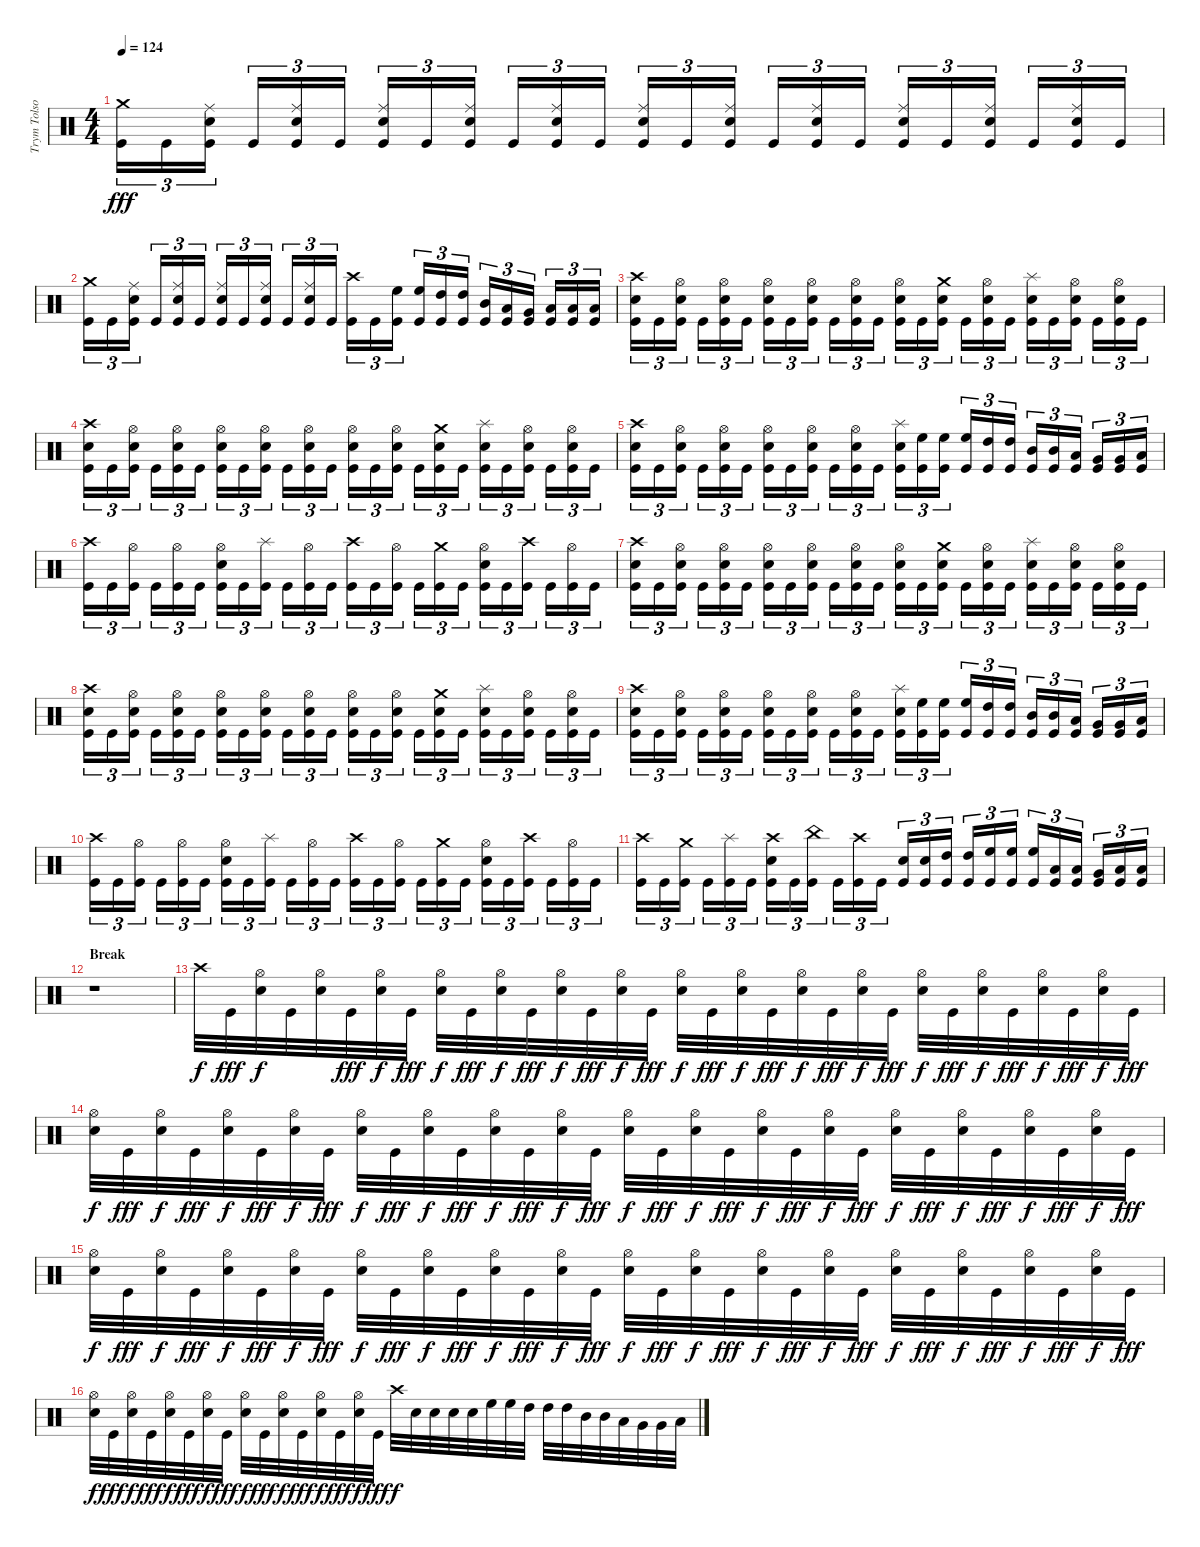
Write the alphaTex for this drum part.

\track ("Trym Tolson" "Trym Tolso") {instrument percussion}
\staff {score}
\articulation defaults
\ts (4 4)
\tempo 124
\clef neutral
\ks c
("Crash medium (hit)" "Kick (hit)").16{tu (3 2) dy fff} "Kick (hit)".16{tu (3 2)} ("Ride (middle)" "Electric Snare (hit)" "Kick (hit)").16{tu (3 2)} "Kick (hit)".16{tu (3 2)} ("Ride (middle)" "Electric Snare (hit)" "Kick (hit)").16{tu (3 2)} "Kick (hit)".16{tu (3 2)} ("Ride (middle)" "Electric Snare (hit)" "Kick (hit)").16{tu (3 2)} "Kick (hit)".16{tu (3 2)} ("Ride (middle)" "Electric Snare (hit)" "Kick (hit)").16{tu (3 2)} "Kick (hit)".16{tu (3 2)} ("Ride (middle)" "Electric Snare (hit)" "Kick (hit)").16{tu (3 2)} "Kick (hit)".16{tu (3 2)} ("Ride (middle)" "Electric Snare (hit)" "Kick (hit)").16{tu (3 2)} "Kick (hit)".16{tu (3 2)} ("Ride (middle)" "Electric Snare (hit)" "Kick (hit)").16{tu (3 2)} "Kick (hit)".16{tu (3 2)} ("Ride (middle)" "Electric Snare (hit)" "Kick (hit)").16{tu (3 2)} "Kick (hit)".16{tu (3 2)} ("Ride (middle)" "Electric Snare (hit)" "Kick (hit)").16{tu (3 2)} "Kick (hit)".16{tu (3 2)} ("Ride (middle)" "Electric Snare (hit)" "Kick (hit)").16{tu (3 2)} "Kick (hit)".16{tu (3 2)} ("Ride (middle)" "Electric Snare (hit)" "Kick (hit)").16{tu (3 2)} "Kick (hit)".16{tu (3 2)} |
("Crash medium (hit)" "Kick (hit)").16{tu (3 2)} "Kick (hit)".16{tu (3 2)} ("Ride (middle)" "Electric Snare (hit)" "Kick (hit)").16{tu (3 2)} "Kick (hit)".16{tu (3 2)} ("Ride (middle)" "Electric Snare (hit)" "Kick (hit)").16{tu (3 2)} "Kick (hit)".16{tu (3 2)} ("Ride (middle)" "Electric Snare (hit)" "Kick (hit)").16{tu (3 2)} "Kick (hit)".16{tu (3 2)} ("Ride (middle)" "Electric Snare (hit)" "Kick (hit)").16{tu (3 2)} "Kick (hit)".16{tu (3 2)} ("Ride (middle)" "Electric Snare (hit)" "Kick (hit)").16{tu (3 2)} "Kick (hit)".16{tu (3 2)} ("Crash high (hit)" "Kick (hit)").16{tu (3 2)} "Kick (hit)".16{tu (3 2)} ("High Floor Tom (hit)" "Kick (hit)").16{tu (3 2)} ("High Floor Tom (hit)" "Kick (hit)").16{tu (3 2)} ("High Tom (hit)" "Kick (hit)").16{tu (3 2)} ("High Tom (hit)" "Kick (hit)").16{tu (3 2)} ("Mid Tom (hit)" "Kick (hit)").16{tu (3 2)} ("Low Tom (hit)" "Kick (hit)").16{tu (3 2)} ("Very Low Tom (hit)" "Kick (hit)").16{tu (3 2)} ("Low Floor Tom (hit)" "Kick (hit)").16{tu (3 2)} ("Low Floor Tom (hit)" "Kick (hit)").16{tu (3 2)} ("Low Floor Tom (hit)" "Kick (hit)").16{tu (3 2)} |
("Crash high (hit)" "Electric Snare (hit)" "Kick (hit)").16{tu (3 2)} "Kick (hit)".16{tu (3 2)} ("Hi-Hat (open)" "Electric Snare (hit)" "Kick (hit)").16{tu (3 2)} "Kick (hit)".16{tu (3 2)} ("Hi-Hat (open)" "Electric Snare (hit)" "Kick (hit)").16{tu (3 2)} "Kick (hit)".16{tu (3 2)} ("Hi-Hat (open)" "Electric Snare (hit)" "Kick (hit)").16{tu (3 2)} "Kick (hit)".16{tu (3 2)} ("Hi-Hat (open)" "Electric Snare (hit)" "Kick (hit)").16{tu (3 2)} "Kick (hit)".16{tu (3 2)} ("Hi-Hat (open)" "Electric Snare (hit)" "Kick (hit)").16{tu (3 2)} "Kick (hit)".16{tu (3 2)} ("Hi-Hat (open)" "Electric Snare (hit)" "Kick (hit)").16{tu (3 2)} "Kick (hit)".16{tu (3 2)} ("Crash medium (hit)" "Electric Snare (hit)" "Kick (hit)").16{tu (3 2)} "Kick (hit)".16{tu (3 2)} ("Hi-Hat (open)" "Electric Snare (hit)" "Kick (hit)").16{tu (3 2)} "Kick (hit)".16{tu (3 2)} ("Splash (hit)" "Electric Snare (hit)" "Kick (hit)").16{tu (3 2)} "Kick (hit)".16{tu (3 2)} ("Hi-Hat (open)" "Electric Snare (hit)" "Kick (hit)").16{tu (3 2)} "Kick (hit)".16{tu (3 2)} ("Hi-Hat (open)" "Electric Snare (hit)" "Kick (hit)").16{tu (3 2)} "Kick (hit)".16{tu (3 2)} |
("Crash high (hit)" "Electric Snare (hit)" "Kick (hit)").16{tu (3 2)} "Kick (hit)".16{tu (3 2)} ("Hi-Hat (open)" "Electric Snare (hit)" "Kick (hit)").16{tu (3 2)} "Kick (hit)".16{tu (3 2)} ("Hi-Hat (open)" "Electric Snare (hit)" "Kick (hit)").16{tu (3 2)} "Kick (hit)".16{tu (3 2)} ("Hi-Hat (open)" "Electric Snare (hit)" "Kick (hit)").16{tu (3 2)} "Kick (hit)".16{tu (3 2)} ("Hi-Hat (open)" "Electric Snare (hit)" "Kick (hit)").16{tu (3 2)} "Kick (hit)".16{tu (3 2)} ("Hi-Hat (open)" "Electric Snare (hit)" "Kick (hit)").16{tu (3 2)} "Kick (hit)".16{tu (3 2)} ("Hi-Hat (open)" "Electric Snare (hit)" "Kick (hit)").16{tu (3 2)} "Kick (hit)".16{tu (3 2)} ("Hi-Hat (open)" "Electric Snare (hit)" "Kick (hit)").16{tu (3 2)} "Kick (hit)".16{tu (3 2)} ("Crash medium (hit)" "Electric Snare (hit)" "Kick (hit)").16{tu (3 2)} "Kick (hit)".16{tu (3 2)} ("Splash (hit)" "Electric Snare (hit)" "Kick (hit)").16{tu (3 2)} "Kick (hit)".16{tu (3 2)} ("Hi-Hat (open)" "Electric Snare (hit)" "Kick (hit)").16{tu (3 2)} "Kick (hit)".16{tu (3 2)} ("Hi-Hat (open)" "Electric Snare (hit)" "Kick (hit)").16{tu (3 2)} "Kick (hit)".16{tu (3 2)} |
("Crash high (hit)" "Electric Snare (hit)" "Kick (hit)").16{tu (3 2)} "Kick (hit)".16{tu (3 2)} ("Hi-Hat (open)" "Electric Snare (hit)" "Kick (hit)").16{tu (3 2)} "Kick (hit)".16{tu (3 2)} ("Hi-Hat (open)" "Electric Snare (hit)" "Kick (hit)").16{tu (3 2)} "Kick (hit)".16{tu (3 2)} ("Hi-Hat (open)" "Electric Snare (hit)" "Kick (hit)").16{tu (3 2)} "Kick (hit)".16{tu (3 2)} ("Hi-Hat (open)" "Electric Snare (hit)" "Kick (hit)").16{tu (3 2)} "Kick (hit)".16{tu (3 2)} ("Hi-Hat (open)" "Electric Snare (hit)" "Kick (hit)").16{tu (3 2)} "Kick (hit)".16{tu (3 2)} ("Splash (hit)" "Electric Snare (hit)" "Kick (hit)").16{tu (3 2)} ("High Floor Tom (hit)" "Kick (hit)").16{tu (3 2)} ("High Floor Tom (hit)" "Kick (hit)").16{tu (3 2)} ("High Floor Tom (hit)" "Kick (hit)").16{tu (3 2)} ("High Tom (hit)" "Kick (hit)").16{tu (3 2)} ("High Tom (hit)" "Kick (hit)").16{tu (3 2)} ("Mid Tom (hit)" "Kick (hit)").16{tu (3 2)} ("Mid Tom (hit)" "Kick (hit)").16{tu (3 2)} ("Low Tom (hit)" "Kick (hit)").16{tu (3 2)} ("Very Low Tom (hit)" "Kick (hit)").16{tu (3 2)} ("Very Low Tom (hit)" "Kick (hit)").16{tu (3 2)} ("Low Floor Tom (hit)" "Kick (hit)").16{tu (3 2)} |
("Crash high (hit)" "Kick (hit)").16{tu (3 2)} "Kick (hit)".16{tu (3 2)} ("Hi-Hat (open)" "Kick (hit)").16{tu (3 2)} "Kick (hit)".16{tu (3 2)} ("Hi-Hat (open)" "Kick (hit)").16{tu (3 2)} "Kick (hit)".16{tu (3 2)} ("Hi-Hat (open)" "Electric Snare (hit)" "Kick (hit)").16{tu (3 2)} "Kick (hit)".16{tu (3 2)} ("Splash (hit)" "Kick (hit)").16{tu (3 2)} "Kick (hit)".16{tu (3 2)} ("Hi-Hat (open)" "Kick (hit)").16{tu (3 2)} "Kick (hit)".16{tu (3 2)} ("Crash high (hit)" "Kick (hit)").16{tu (3 2)} "Kick (hit)".16{tu (3 2)} ("Hi-Hat (open)" "Kick (hit)").16{tu (3 2)} "Kick (hit)".16{tu (3 2)} ("Crash medium (hit)" "Kick (hit)").16{tu (3 2)} "Kick (hit)".16{tu (3 2)} ("Hi-Hat (open)" "Electric Snare (hit)" "Kick (hit)").16{tu (3 2)} "Kick (hit)".16{tu (3 2)} ("Crash high (hit)" "Kick (hit)").16{tu (3 2)} "Kick (hit)".16{tu (3 2)} ("Hi-Hat (open)" "Kick (hit)").16{tu (3 2)} "Kick (hit)".16{tu (3 2)} |
("Crash high (hit)" "Electric Snare (hit)" "Kick (hit)").16{tu (3 2)} "Kick (hit)".16{tu (3 2)} ("Hi-Hat (open)" "Electric Snare (hit)" "Kick (hit)").16{tu (3 2)} "Kick (hit)".16{tu (3 2)} ("Hi-Hat (open)" "Electric Snare (hit)" "Kick (hit)").16{tu (3 2)} "Kick (hit)".16{tu (3 2)} ("Hi-Hat (open)" "Electric Snare (hit)" "Kick (hit)").16{tu (3 2)} "Kick (hit)".16{tu (3 2)} ("Hi-Hat (open)" "Electric Snare (hit)" "Kick (hit)").16{tu (3 2)} "Kick (hit)".16{tu (3 2)} ("Hi-Hat (open)" "Electric Snare (hit)" "Kick (hit)").16{tu (3 2)} "Kick (hit)".16{tu (3 2)} ("Hi-Hat (open)" "Electric Snare (hit)" "Kick (hit)").16{tu (3 2)} "Kick (hit)".16{tu (3 2)} ("Crash medium (hit)" "Electric Snare (hit)" "Kick (hit)").16{tu (3 2)} "Kick (hit)".16{tu (3 2)} ("Hi-Hat (open)" "Electric Snare (hit)" "Kick (hit)").16{tu (3 2)} "Kick (hit)".16{tu (3 2)} ("Splash (hit)" "Electric Snare (hit)" "Kick (hit)").16{tu (3 2)} "Kick (hit)".16{tu (3 2)} ("Hi-Hat (open)" "Electric Snare (hit)" "Kick (hit)").16{tu (3 2)} "Kick (hit)".16{tu (3 2)} ("Hi-Hat (open)" "Electric Snare (hit)" "Kick (hit)").16{tu (3 2)} "Kick (hit)".16{tu (3 2)} |
("Crash high (hit)" "Electric Snare (hit)" "Kick (hit)").16{tu (3 2)} "Kick (hit)".16{tu (3 2)} ("Hi-Hat (open)" "Electric Snare (hit)" "Kick (hit)").16{tu (3 2)} "Kick (hit)".16{tu (3 2)} ("Hi-Hat (open)" "Electric Snare (hit)" "Kick (hit)").16{tu (3 2)} "Kick (hit)".16{tu (3 2)} ("Hi-Hat (open)" "Electric Snare (hit)" "Kick (hit)").16{tu (3 2)} "Kick (hit)".16{tu (3 2)} ("Hi-Hat (open)" "Electric Snare (hit)" "Kick (hit)").16{tu (3 2)} "Kick (hit)".16{tu (3 2)} ("Hi-Hat (open)" "Electric Snare (hit)" "Kick (hit)").16{tu (3 2)} "Kick (hit)".16{tu (3 2)} ("Hi-Hat (open)" "Electric Snare (hit)" "Kick (hit)").16{tu (3 2)} "Kick (hit)".16{tu (3 2)} ("Hi-Hat (open)" "Electric Snare (hit)" "Kick (hit)").16{tu (3 2)} "Kick (hit)".16{tu (3 2)} ("Crash medium (hit)" "Electric Snare (hit)" "Kick (hit)").16{tu (3 2)} "Kick (hit)".16{tu (3 2)} ("Splash (hit)" "Electric Snare (hit)" "Kick (hit)").16{tu (3 2)} "Kick (hit)".16{tu (3 2)} ("Hi-Hat (open)" "Electric Snare (hit)" "Kick (hit)").16{tu (3 2)} "Kick (hit)".16{tu (3 2)} ("Hi-Hat (open)" "Electric Snare (hit)" "Kick (hit)").16{tu (3 2)} "Kick (hit)".16{tu (3 2)} |
("Crash high (hit)" "Electric Snare (hit)" "Kick (hit)").16{tu (3 2)} "Kick (hit)".16{tu (3 2)} ("Hi-Hat (open)" "Electric Snare (hit)" "Kick (hit)").16{tu (3 2)} "Kick (hit)".16{tu (3 2)} ("Hi-Hat (open)" "Electric Snare (hit)" "Kick (hit)").16{tu (3 2)} "Kick (hit)".16{tu (3 2)} ("Hi-Hat (open)" "Electric Snare (hit)" "Kick (hit)").16{tu (3 2)} "Kick (hit)".16{tu (3 2)} ("Hi-Hat (open)" "Electric Snare (hit)" "Kick (hit)").16{tu (3 2)} "Kick (hit)".16{tu (3 2)} ("Hi-Hat (open)" "Electric Snare (hit)" "Kick (hit)").16{tu (3 2)} "Kick (hit)".16{tu (3 2)} ("Splash (hit)" "Electric Snare (hit)" "Kick (hit)").16{tu (3 2)} ("High Floor Tom (hit)" "Kick (hit)").16{tu (3 2)} ("High Floor Tom (hit)" "Kick (hit)").16{tu (3 2)} ("High Floor Tom (hit)" "Kick (hit)").16{tu (3 2)} ("High Tom (hit)" "Kick (hit)").16{tu (3 2)} ("High Tom (hit)" "Kick (hit)").16{tu (3 2)} ("Mid Tom (hit)" "Kick (hit)").16{tu (3 2)} ("Mid Tom (hit)" "Kick (hit)").16{tu (3 2)} ("Low Tom (hit)" "Kick (hit)").16{tu (3 2)} ("Very Low Tom (hit)" "Kick (hit)").16{tu (3 2)} ("Very Low Tom (hit)" "Kick (hit)").16{tu (3 2)} ("Low Floor Tom (hit)" "Kick (hit)").16{tu (3 2)} |
("Crash high (hit)" "Kick (hit)").16{tu (3 2)} "Kick (hit)".16{tu (3 2)} ("Hi-Hat (open)" "Kick (hit)").16{tu (3 2)} "Kick (hit)".16{tu (3 2)} ("Hi-Hat (open)" "Kick (hit)").16{tu (3 2)} "Kick (hit)".16{tu (3 2)} ("Hi-Hat (open)" "Electric Snare (hit)" "Kick (hit)").16{tu (3 2)} "Kick (hit)".16{tu (3 2)} ("Splash (hit)" "Kick (hit)").16{tu (3 2)} "Kick (hit)".16{tu (3 2)} ("Hi-Hat (open)" "Kick (hit)").16{tu (3 2)} "Kick (hit)".16{tu (3 2)} ("Crash high (hit)" "Kick (hit)").16{tu (3 2)} "Kick (hit)".16{tu (3 2)} ("Hi-Hat (open)" "Kick (hit)").16{tu (3 2)} "Kick (hit)".16{tu (3 2)} ("Crash medium (hit)" "Kick (hit)").16{tu (3 2)} "Kick (hit)".16{tu (3 2)} ("Hi-Hat (open)" "Electric Snare (hit)" "Kick (hit)").16{tu (3 2)} "Kick (hit)".16{tu (3 2)} ("Crash high (hit)" "Kick (hit)").16{tu (3 2)} "Kick (hit)".16{tu (3 2)} ("Hi-Hat (open)" "Kick (hit)").16{tu (3 2)} "Kick (hit)".16{tu (3 2)} |
("Crash high (hit)" "Kick (hit)").16{tu (3 2)} "Kick (hit)".16{tu (3 2)} ("Crash medium (hit)" "Kick (hit)").16{tu (3 2)} "Kick (hit)".16{tu (3 2)} ("Splash (hit)" "Kick (hit)").16{tu (3 2)} "Kick (hit)".16{tu (3 2)} ("Crash high (hit)" "Electric Snare (hit)" "Kick (hit)").16{tu (3 2)} "Kick (hit)".16{tu (3 2)} ("China (hit)" "Kick (hit)").16{tu (3 2)} "Kick (hit)".16{tu (3 2)} ("Crash high (hit)" "Kick (hit)").16{tu (3 2)} "Kick (hit)".16{tu (3 2)} ("Electric Snare (hit)" "Kick (hit)").16{tu (3 2)} ("Electric Snare (hit)" "Kick (hit)").16{tu (3 2)} ("High Tom (hit)" "Kick (hit)").16{tu (3 2)} ("High Tom (hit)" "Kick (hit)").16{tu (3 2)} ("High Floor Tom (hit)" "Kick (hit)").16{tu (3 2)} ("High Floor Tom (hit)" "Kick (hit)").16{tu (3 2)} ("High Floor Tom (hit)" "Kick (hit)").16{tu (3 2)} ("Low Tom (hit)" "Kick (hit)").16{tu (3 2)} ("Low Tom (hit)" "Kick (hit)").16{tu (3 2)} ("Very Low Tom (hit)" "Kick (hit)").16{tu (3 2)} ("Low Floor Tom (hit)" "Kick (hit)").16{tu (3 2)} ("Low Floor Tom (hit)" "Kick (hit)").16{tu (3 2)} |
\section ("" "Break")
r.1 |
"Crash high (hit)".32{dy f} "Kick (hit)".32{dy fff} ("Hi-Hat (open)" "Electric Snare (hit)").32{dy f} "Kick (hit)".32 ("Hi-Hat (open)" "Electric Snare (hit)").32 "Kick (hit)".32{dy fff} ("Hi-Hat (open)" "Electric Snare (hit)").32{dy f} "Kick (hit)".32{dy fff} ("Hi-Hat (open)" "Electric Snare (hit)").32{dy f} "Kick (hit)".32{dy fff} ("Hi-Hat (open)" "Electric Snare (hit)").32{dy f} "Kick (hit)".32{dy fff} ("Hi-Hat (open)" "Electric Snare (hit)").32{dy f} "Kick (hit)".32{dy fff} ("Hi-Hat (open)" "Electric Snare (hit)").32{dy f} "Kick (hit)".32{dy fff} ("Hi-Hat (open)" "Electric Snare (hit)").32{dy f} "Kick (hit)".32{dy fff} ("Hi-Hat (open)" "Electric Snare (hit)").32{dy f} "Kick (hit)".32{dy fff} ("Hi-Hat (open)" "Electric Snare (hit)").32{dy f} "Kick (hit)".32{dy fff} ("Hi-Hat (open)" "Electric Snare (hit)").32{dy f} "Kick (hit)".32{dy fff} ("Hi-Hat (open)" "Electric Snare (hit)").32{dy f} "Kick (hit)".32{dy fff} ("Hi-Hat (open)" "Electric Snare (hit)").32{dy f} "Kick (hit)".32{dy fff} ("Hi-Hat (open)" "Electric Snare (hit)").32{dy f} "Kick (hit)".32{dy fff} ("Hi-Hat (open)" "Electric Snare (hit)").32{dy f} "Kick (hit)".32{dy fff} |
("Hi-Hat (open)" "Electric Snare (hit)").32{dy f} "Kick (hit)".32{dy fff} ("Hi-Hat (open)" "Electric Snare (hit)").32{dy f} "Kick (hit)".32{dy fff} ("Hi-Hat (open)" "Electric Snare (hit)").32{dy f} "Kick (hit)".32{dy fff} ("Hi-Hat (open)" "Electric Snare (hit)").32{dy f} "Kick (hit)".32{dy fff} ("Hi-Hat (open)" "Electric Snare (hit)").32{dy f} "Kick (hit)".32{dy fff} ("Hi-Hat (open)" "Electric Snare (hit)").32{dy f} "Kick (hit)".32{dy fff} ("Hi-Hat (open)" "Electric Snare (hit)").32{dy f} "Kick (hit)".32{dy fff} ("Hi-Hat (open)" "Electric Snare (hit)").32{dy f} "Kick (hit)".32{dy fff} ("Hi-Hat (open)" "Electric Snare (hit)").32{dy f} "Kick (hit)".32{dy fff} ("Hi-Hat (open)" "Electric Snare (hit)").32{dy f} "Kick (hit)".32{dy fff} ("Hi-Hat (open)" "Electric Snare (hit)").32{dy f} "Kick (hit)".32{dy fff} ("Hi-Hat (open)" "Electric Snare (hit)").32{dy f} "Kick (hit)".32{dy fff} ("Hi-Hat (open)" "Electric Snare (hit)").32{dy f} "Kick (hit)".32{dy fff} ("Hi-Hat (open)" "Electric Snare (hit)").32{dy f} "Kick (hit)".32{dy fff} ("Hi-Hat (open)" "Electric Snare (hit)").32{dy f} "Kick (hit)".32{dy fff} ("Hi-Hat (open)" "Electric Snare (hit)").32{dy f} "Kick (hit)".32{dy fff} |
("Hi-Hat (open)" "Electric Snare (hit)").32{dy f} "Kick (hit)".32{dy fff} ("Hi-Hat (open)" "Electric Snare (hit)").32{dy f} "Kick (hit)".32{dy fff} ("Hi-Hat (open)" "Electric Snare (hit)").32{dy f} "Kick (hit)".32{dy fff} ("Hi-Hat (open)" "Electric Snare (hit)").32{dy f} "Kick (hit)".32{dy fff} ("Hi-Hat (open)" "Electric Snare (hit)").32{dy f} "Kick (hit)".32{dy fff} ("Hi-Hat (open)" "Electric Snare (hit)").32{dy f} "Kick (hit)".32{dy fff} ("Hi-Hat (open)" "Electric Snare (hit)").32{dy f} "Kick (hit)".32{dy fff} ("Hi-Hat (open)" "Electric Snare (hit)").32{dy f} "Kick (hit)".32{dy fff} ("Hi-Hat (open)" "Electric Snare (hit)").32{dy f} "Kick (hit)".32{dy fff} ("Hi-Hat (open)" "Electric Snare (hit)").32{dy f} "Kick (hit)".32{dy fff} ("Hi-Hat (open)" "Electric Snare (hit)").32{dy f} "Kick (hit)".32{dy fff} ("Hi-Hat (open)" "Electric Snare (hit)").32{dy f} "Kick (hit)".32{dy fff} ("Hi-Hat (open)" "Electric Snare (hit)").32{dy f} "Kick (hit)".32{dy fff} ("Hi-Hat (open)" "Electric Snare (hit)").32{dy f} "Kick (hit)".32{dy fff} ("Hi-Hat (open)" "Electric Snare (hit)").32{dy f} "Kick (hit)".32{dy fff} ("Hi-Hat (open)" "Electric Snare (hit)").32{dy f} "Kick (hit)".32{dy fff} |
("Hi-Hat (open)" "Electric Snare (hit)").32{dy f} "Kick (hit)".32{dy fff} ("Hi-Hat (open)" "Electric Snare (hit)").32{dy f} "Kick (hit)".32{dy fff} ("Hi-Hat (open)" "Electric Snare (hit)").32{dy f} "Kick (hit)".32{dy fff} ("Hi-Hat (open)" "Electric Snare (hit)").32{dy f} "Kick (hit)".32{dy fff} ("Hi-Hat (open)" "Electric Snare (hit)").32{dy f} "Kick (hit)".32{dy fff} ("Hi-Hat (open)" "Electric Snare (hit)").32{dy f} "Kick (hit)".32{dy fff} ("Hi-Hat (open)" "Electric Snare (hit)").32{dy f} "Kick (hit)".32{dy fff} ("Hi-Hat (open)" "Electric Snare (hit)").32{dy f} "Kick (hit)".32{dy fff} "Crash high (hit)".32{dy f} "Electric Snare (hit)".32 "Electric Snare (hit)".32 "Electric Snare (hit)".32 "Electric Snare (hit)".32 "High Floor Tom (hit)".32 "High Floor Tom (hit)".32 "High Tom (hit)".32 "High Tom (hit)".32 "High Tom (hit)".32 "Mid Tom (hit)".32 "Mid Tom (hit)".32 "Low Tom (hit)".32 "Very Low Tom (hit)".32 "Very Low Tom (hit)".32 "Low Floor Tom (hit)".32
